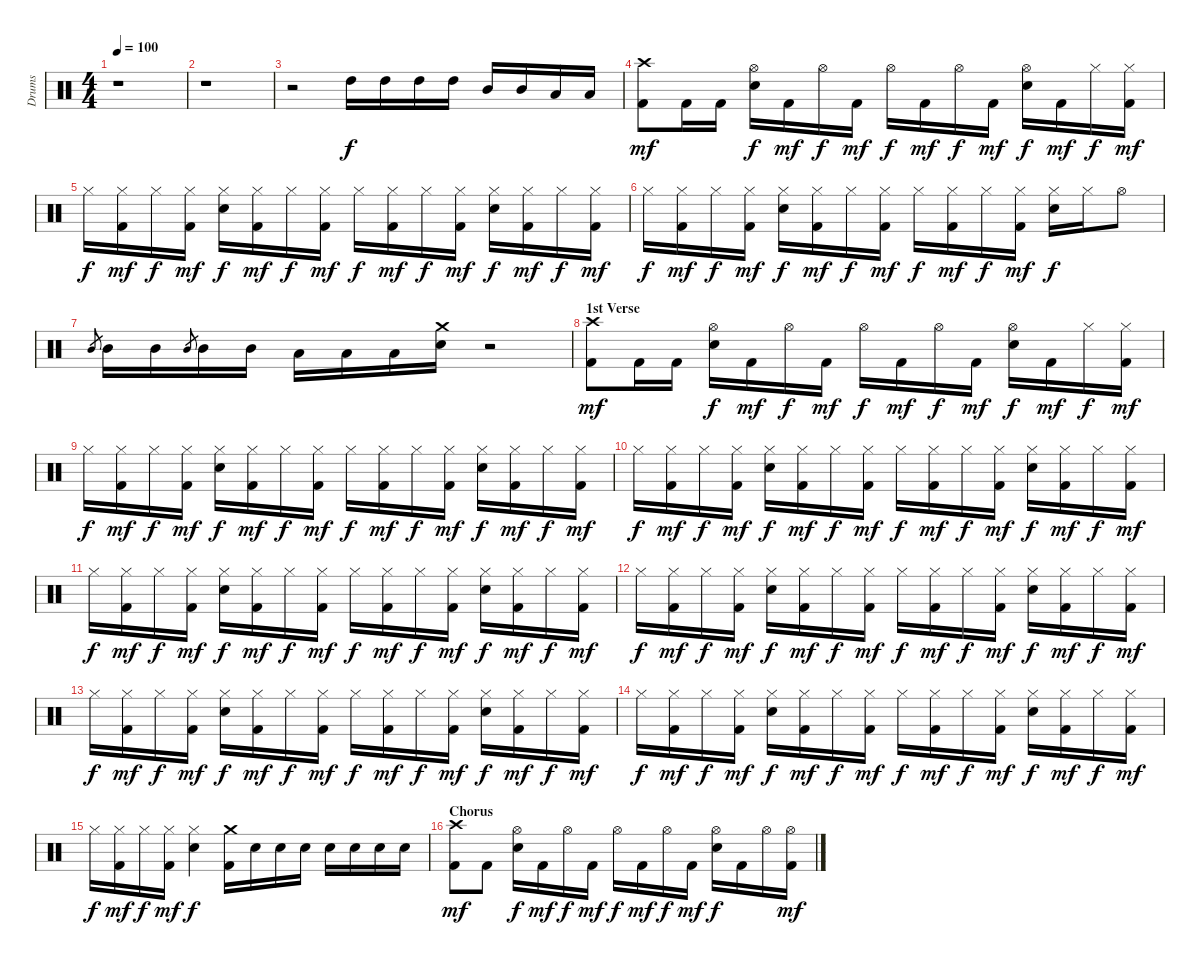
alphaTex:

\track ("Drums" "Drums") {instrument percussion}
\staff {score}
\articulation defaults
\ts (4 4)
\tempo 100
\clef neutral
\ks c
r.1{dy f} |
r.1 |
r.2 "High Tom (hit)".16 "High Tom (hit)".16 "High Tom (hit)".16 "High Tom (hit)".16 "Mid Tom (hit)".16 "Mid Tom (hit)".16 "Low Tom (hit)".16 "Low Tom (hit)".16 |
("Kick (hit) 2" "Crash high (hit)").8{dy mf} "Kick (hit) 2".16 "Kick (hit) 2".16 ("Snare (hit) 2" "Hi-Hat (open)").16{dy f} "Kick (hit) 2".16{dy mf} "Hi-Hat (open)".16{dy f} "Kick (hit) 2".16{dy mf} "Hi-Hat (open)".16{dy f} "Kick (hit) 2".16{dy mf} "Hi-Hat (open)".16{dy f} "Kick (hit) 2".16{dy mf} ("Snare (hit) 2" "Hi-Hat (open)").16{dy f} "Kick (hit) 2".16{dy mf} "Hi-Hat (closed)".16{dy f} ("Kick (hit) 2" "Hi-Hat (closed)").16{dy mf} |
"Hi-Hat (closed)".16{dy f} ("Kick (hit) 2" "Hi-Hat (closed)").16{dy mf} "Hi-Hat (closed)".16{dy f} ("Kick (hit) 2" "Hi-Hat (closed)").16{dy mf} ("Snare (hit) 2" "Hi-Hat (closed)").16{dy f} ("Kick (hit) 2" "Hi-Hat (closed)").16{dy mf} "Hi-Hat (closed)".16{dy f} ("Kick (hit) 2" "Hi-Hat (closed)").16{dy mf} "Hi-Hat (closed)".16{dy f} ("Kick (hit) 2" "Hi-Hat (closed)").16{dy mf} "Hi-Hat (closed)".16{dy f} ("Kick (hit) 2" "Hi-Hat (closed)").16{dy mf} ("Snare (hit) 2" "Hi-Hat (closed)").16{dy f} ("Kick (hit) 2" "Hi-Hat (closed)").16{dy mf} "Hi-Hat (closed)".16{dy f} ("Kick (hit) 2" "Hi-Hat (closed)").16{dy mf} |
"Hi-Hat (closed)".16{dy f} ("Kick (hit) 2" "Hi-Hat (closed)").16{dy mf} "Hi-Hat (closed)".16{dy f} ("Kick (hit) 2" "Hi-Hat (closed)").16{dy mf} ("Snare (hit) 2" "Hi-Hat (closed)").16{dy f} ("Kick (hit) 2" "Hi-Hat (closed)").16{dy mf} "Hi-Hat (closed)".16{dy f} ("Kick (hit) 2" "Hi-Hat (closed)").16{dy mf} "Hi-Hat (closed)".16{dy f} ("Kick (hit) 2" "Hi-Hat (closed)").16{dy mf} "Hi-Hat (closed)".16{dy f} ("Kick (hit) 2" "Hi-Hat (closed)").16{dy mf} ("Snare (hit) 2" "Hi-Hat (closed)").16{dy f} "Hi-Hat (closed)".16 "Hi-Hat (open)".8 |
"Mid Tom (hit)".8{gr} "Mid Tom (hit)".16 "Mid Tom (hit)".16 "Mid Tom (hit)".8{gr} "Mid Tom (hit)".16 "Mid Tom (hit)".16 "Low Tom (hit)".16 "Low Tom (hit)".16 "Low Tom (hit)".16 ("Snare (hit) 2" "Crash medium (hit)").16 r.2 |
\section ("" "1st Verse")
("Kick (hit) 2" "Crash high (hit)").8{dy mf} "Kick (hit) 2".16 "Kick (hit) 2".16 ("Snare (hit) 2" "Hi-Hat (open)").16{dy f} "Kick (hit) 2".16{dy mf} "Hi-Hat (open)".16{dy f} "Kick (hit) 2".16{dy mf} "Hi-Hat (open)".16{dy f} "Kick (hit) 2".16{dy mf} "Hi-Hat (open)".16{dy f} "Kick (hit) 2".16{dy mf} ("Snare (hit) 2" "Hi-Hat (open)").16{dy f} "Kick (hit) 2".16{dy mf} "Hi-Hat (closed)".16{dy f} ("Kick (hit) 2" "Hi-Hat (closed)").16{dy mf} |
"Hi-Hat (closed)".16{dy f} ("Kick (hit) 2" "Hi-Hat (closed)").16{dy mf} "Hi-Hat (closed)".16{dy f} ("Kick (hit) 2" "Hi-Hat (closed)").16{dy mf} ("Snare (hit) 2" "Hi-Hat (closed)").16{dy f} ("Kick (hit) 2" "Hi-Hat (closed)").16{dy mf} "Hi-Hat (closed)".16{dy f} ("Kick (hit) 2" "Hi-Hat (closed)").16{dy mf} "Hi-Hat (closed)".16{dy f} ("Kick (hit) 2" "Hi-Hat (closed)").16{dy mf} "Hi-Hat (closed)".16{dy f} ("Kick (hit) 2" "Hi-Hat (closed)").16{dy mf} ("Snare (hit) 2" "Hi-Hat (closed)").16{dy f} ("Kick (hit) 2" "Hi-Hat (closed)").16{dy mf} "Hi-Hat (closed)".16{dy f} ("Kick (hit) 2" "Hi-Hat (closed)").16{dy mf} |
"Hi-Hat (closed)".16{dy f} ("Kick (hit) 2" "Hi-Hat (closed)").16{dy mf} "Hi-Hat (closed)".16{dy f} ("Kick (hit) 2" "Hi-Hat (closed)").16{dy mf} ("Snare (hit) 2" "Hi-Hat (closed)").16{dy f} ("Kick (hit) 2" "Hi-Hat (closed)").16{dy mf} "Hi-Hat (closed)".16{dy f} ("Kick (hit) 2" "Hi-Hat (closed)").16{dy mf} "Hi-Hat (closed)".16{dy f} ("Kick (hit) 2" "Hi-Hat (closed)").16{dy mf} "Hi-Hat (closed)".16{dy f} ("Kick (hit) 2" "Hi-Hat (closed)").16{dy mf} ("Snare (hit) 2" "Hi-Hat (closed)").16{dy f} ("Kick (hit) 2" "Hi-Hat (closed)").16{dy mf} "Hi-Hat (closed)".16{dy f} ("Kick (hit) 2" "Hi-Hat (closed)").16{dy mf} |
"Hi-Hat (closed)".16{dy f} ("Kick (hit) 2" "Hi-Hat (closed)").16{dy mf} "Hi-Hat (closed)".16{dy f} ("Kick (hit) 2" "Hi-Hat (closed)").16{dy mf} ("Snare (hit) 2" "Hi-Hat (closed)").16{dy f} ("Kick (hit) 2" "Hi-Hat (closed)").16{dy mf} "Hi-Hat (closed)".16{dy f} ("Kick (hit) 2" "Hi-Hat (closed)").16{dy mf} "Hi-Hat (closed)".16{dy f} ("Kick (hit) 2" "Hi-Hat (closed)").16{dy mf} "Hi-Hat (closed)".16{dy f} ("Kick (hit) 2" "Hi-Hat (closed)").16{dy mf} ("Snare (hit) 2" "Hi-Hat (closed)").16{dy f} ("Kick (hit) 2" "Hi-Hat (closed)").16{dy mf} "Hi-Hat (closed)".16{dy f} ("Kick (hit) 2" "Hi-Hat (closed)").16{dy mf} |
"Hi-Hat (closed)".16{dy f} ("Kick (hit) 2" "Hi-Hat (closed)").16{dy mf} "Hi-Hat (closed)".16{dy f} ("Kick (hit) 2" "Hi-Hat (closed)").16{dy mf} ("Snare (hit) 2" "Hi-Hat (closed)").16{dy f} ("Kick (hit) 2" "Hi-Hat (closed)").16{dy mf} "Hi-Hat (closed)".16{dy f} ("Kick (hit) 2" "Hi-Hat (closed)").16{dy mf} "Hi-Hat (closed)".16{dy f} ("Kick (hit) 2" "Hi-Hat (closed)").16{dy mf} "Hi-Hat (closed)".16{dy f} ("Kick (hit) 2" "Hi-Hat (closed)").16{dy mf} ("Snare (hit) 2" "Hi-Hat (closed)").16{dy f} ("Kick (hit) 2" "Hi-Hat (closed)").16{dy mf} "Hi-Hat (closed)".16{dy f} ("Kick (hit) 2" "Hi-Hat (closed)").16{dy mf} |
"Hi-Hat (closed)".16{dy f} ("Kick (hit) 2" "Hi-Hat (closed)").16{dy mf} "Hi-Hat (closed)".16{dy f} ("Kick (hit) 2" "Hi-Hat (closed)").16{dy mf} ("Snare (hit) 2" "Hi-Hat (closed)").16{dy f} ("Kick (hit) 2" "Hi-Hat (closed)").16{dy mf} "Hi-Hat (closed)".16{dy f} ("Kick (hit) 2" "Hi-Hat (closed)").16{dy mf} "Hi-Hat (closed)".16{dy f} ("Kick (hit) 2" "Hi-Hat (closed)").16{dy mf} "Hi-Hat (closed)".16{dy f} ("Kick (hit) 2" "Hi-Hat (closed)").16{dy mf} ("Snare (hit) 2" "Hi-Hat (closed)").16{dy f} ("Kick (hit) 2" "Hi-Hat (closed)").16{dy mf} "Hi-Hat (closed)".16{dy f} ("Kick (hit) 2" "Hi-Hat (closed)").16{dy mf} |
"Hi-Hat (closed)".16{dy f} ("Kick (hit) 2" "Hi-Hat (closed)").16{dy mf} "Hi-Hat (closed)".16{dy f} ("Kick (hit) 2" "Hi-Hat (closed)").16{dy mf} ("Snare (hit) 2" "Hi-Hat (closed)").16{dy f} ("Kick (hit) 2" "Hi-Hat (closed)").16{dy mf} "Hi-Hat (closed)".16{dy f} ("Kick (hit) 2" "Hi-Hat (closed)").16{dy mf} "Hi-Hat (closed)".16{dy f} ("Kick (hit) 2" "Hi-Hat (closed)").16{dy mf} "Hi-Hat (closed)".16{dy f} ("Kick (hit) 2" "Hi-Hat (closed)").16{dy mf} ("Snare (hit) 2" "Hi-Hat (closed)").16{dy f} ("Kick (hit) 2" "Hi-Hat (closed)").16{dy mf} "Hi-Hat (closed)".16{dy f} ("Kick (hit) 2" "Hi-Hat (closed)").16{dy mf} |
"Hi-Hat (closed)".16{dy f} ("Kick (hit) 2" "Hi-Hat (closed)").16{dy mf} "Hi-Hat (closed)".16{dy f} ("Kick (hit) 2" "Hi-Hat (closed)").16{dy mf} ("Snare (hit) 2" "Hi-Hat (closed)").4{dy f} ("Kick (hit) 2" "Crash medium (hit)").16 "Snare (hit) 2".16 "Snare (hit) 2".16 "Snare (hit) 2".16 "Snare (hit) 2".16 "Snare (hit) 2".16 "Snare (hit) 2".16 "Snare (hit) 2".16 |
\section ("" "Chorus")
("Kick (hit) 2" "Crash high (hit)").8{dy mf} "Kick (hit) 2".8 ("Snare (hit) 2" "Hi-Hat (open)").16{dy f} "Kick (hit) 2".16{dy mf} "Hi-Hat (open)".16{dy f} "Kick (hit) 2".16{dy mf} "Hi-Hat (open)".16{dy f} "Kick (hit) 2".16{dy mf} "Hi-Hat (open)".16{dy f} "Kick (hit) 2".16{dy mf} ("Snare (hit) 2" "Hi-Hat (open)").16{dy f} "Kick (hit) 2".16 "Hi-Hat (open)".16 ("Kick (hit) 2" "Hi-Hat (open)").16{dy mf}
